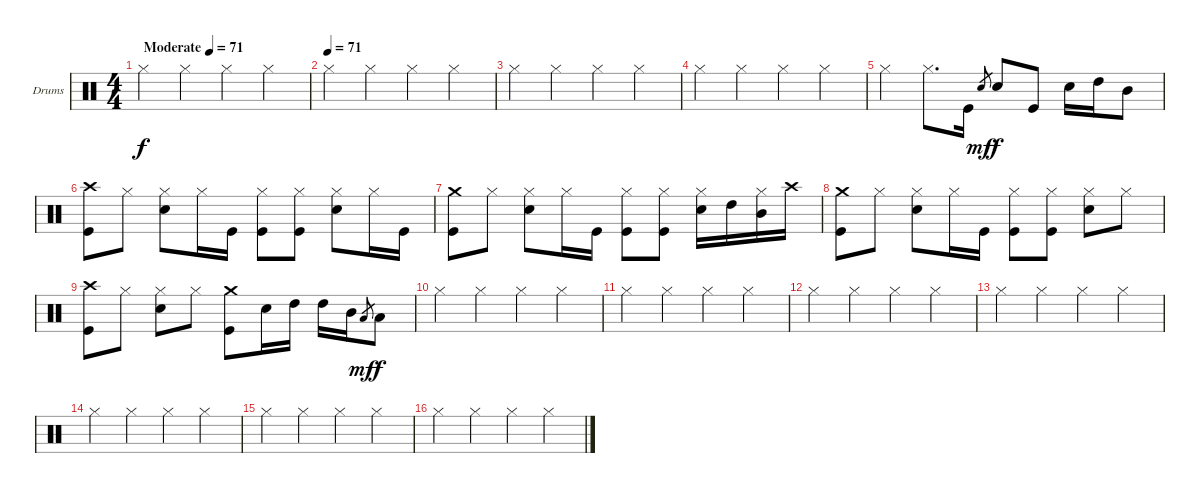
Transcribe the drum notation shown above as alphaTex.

\bracketExtendMode groupsimilarinstruments
\firstSystemTrackNameOrientation horizontal
\otherSystemsTrackNameOrientation horizontal
\track ("Барабаны" "Drums") {instrument percussion}
\staff {score}
\articulation defaults
\ts (4 4)
\beaming (8 2 2 2 2)
\tempo (71 "Moderate")
\clef neutral
\scale
0.472222
\ks c "Hi-Hat (closed)".4{dy f} "Hi-Hat (closed)".4 "Hi-Hat (closed)".4 "Hi-Hat (closed)".4
|
\tempo 71
\scale
0.263889 "Hi-Hat (closed)".4 "Hi-Hat (closed)".4 "Hi-Hat (closed)".4 "Hi-Hat (closed)".4 |
\scale
0.263889 "Hi-Hat (closed)".4 "Hi-Hat (closed)".4 "Hi-Hat (closed)".4 "Hi-Hat (closed)".4 |
\scale
0.333333 "Hi-Hat (closed)".4 "Hi-Hat (closed)".4 "Hi-Hat (closed)".4 "Hi-Hat (closed)".4 |
\scale
0.333333 "Hi-Hat (closed)".4 "Hi-Hat (closed)".8{d} "Kick (hit)".16 "Snare (hit) 2".8{gr dy mf} "Snare (hit) 2".8{dy f} "Kick (hit)".8 "Snare (hit) 2".16 "High Tom (hit)".16 "Mid Tom (hit)".8 |
\scale
0.333333 ("Crash high (hit)" "Kick (hit)").8 "Hi-Hat (closed)".8 ("Hi-Hat (closed)" "Snare (hit) 2").8 "Hi-Hat (closed)".16 "Kick (hit)".16 ("Hi-Hat (closed)" "Kick (hit)").8 ("Hi-Hat (closed)" "Kick (hit)").8 ("Hi-Hat (closed)" "Snare (hit) 2").8 "Hi-Hat (closed)".16 "Kick (hit)".16 |
\scale
0.333333 ("Crash medium (hit)" "Kick (hit)").8 "Hi-Hat (closed)".8 ("Hi-Hat (closed)" "Snare (hit) 2").8 "Hi-Hat (closed)".16 "Kick (hit)".16 ("Hi-Hat (closed)" "Kick (hit)").8 ("Hi-Hat (closed)" "Kick (hit)").8 ("Hi-Hat (closed)" "Snare (hit) 2").16 "High Tom (hit)".16 ("Hi-Hat (closed)" "Mid Tom (hit)").16 "Crash high (hit)".16 |
\scale
0.333333 ("Crash medium (hit)" "Kick (hit)").8 "Hi-Hat (closed)".8 ("Hi-Hat (closed)" "Snare (hit) 2").8 "Hi-Hat (closed)".16 "Kick (hit)".16 ("Hi-Hat (closed)" "Kick (hit)").8 ("Hi-Hat (closed)" "Kick (hit)").8 ("Hi-Hat (closed)" "Snare (hit) 2").8 "Hi-Hat (closed)".8 |
\scale
0.333333 ("Crash high (hit)" "Kick (hit)").8 "Hi-Hat (closed)".8 ("Hi-Hat (closed)" "Snare (hit) 2").8 "Hi-Hat (closed)".8 ("Crash medium (hit)" "Kick (hit)").8 "Snare (hit) 2".16 "High Tom (hit)".16 "High Tom (hit)".16 "Mid Tom (hit)".16 "Low Tom (hit)".8{gr dy mf} "Low Tom (hit)".8{dy f} |
\scale
0.333333 "Hi-Hat (closed)".4 "Hi-Hat (closed)".4 "Hi-Hat (closed)".4 "Hi-Hat (closed)".4 |
\scale
0.333333 "Hi-Hat (closed)".4 "Hi-Hat (closed)".4 "Hi-Hat (closed)".4 "Hi-Hat (closed)".4 |
\scale
0.333333 "Hi-Hat (closed)".4 "Hi-Hat (closed)".4 "Hi-Hat (closed)".4 "Hi-Hat (closed)".4 |
\scale
0.333333 "Hi-Hat (closed)".4 "Hi-Hat (closed)".4 "Hi-Hat (closed)".4 "Hi-Hat (closed)".4 |
\scale
0.333333 "Hi-Hat (closed)".4 "Hi-Hat (closed)".4 "Hi-Hat (closed)".4 "Hi-Hat (closed)".4 |
\scale
0.333333 "Hi-Hat (closed)".4 "Hi-Hat (closed)".4 "Hi-Hat (closed)".4 "Hi-Hat (closed)".4 |
\scale
0.333333 "Hi-Hat (closed)".4 "Hi-Hat (closed)".4 "Hi-Hat (closed)".4 "Hi-Hat (closed)".4
